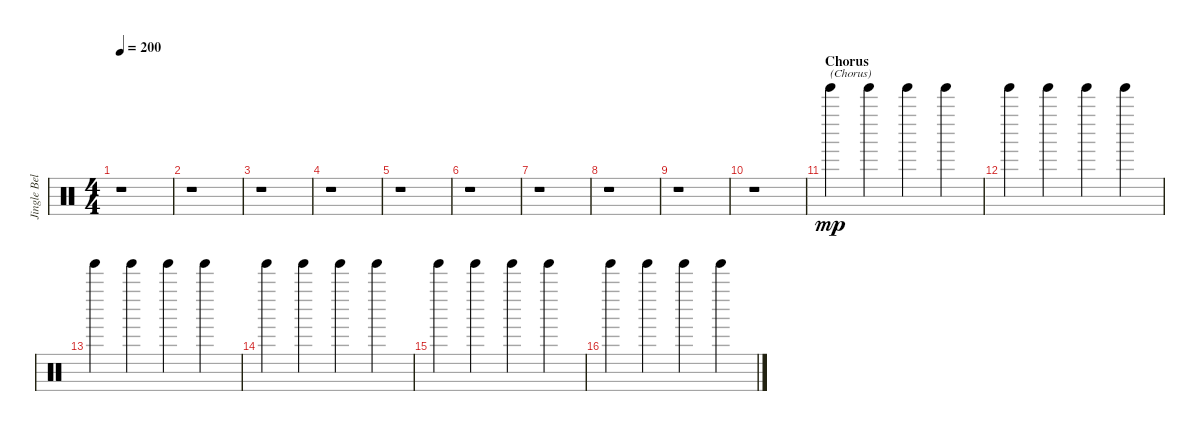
\track ("Jingle Bells" "Jingle Bel") {instrument percussion}
\staff {score}
\articulation defaults
\ts (4 4)
\tempo 200
\clef neutral
\ks c
r.1{dy mp} |
r.1 |
r.1 |
r.1 |
r.1 |
r.1 |
r.1 |
r.1 |
r.1 |
r.1 |
\section ("" "Chorus")
"Tinkle Bell (hit)".4{txt "(Chorus)"} "Tinkle Bell (hit)".4 "Tinkle Bell (hit)".4 "Tinkle Bell (hit)".4 |
"Tinkle Bell (hit)".4 "Tinkle Bell (hit)".4 "Tinkle Bell (hit)".4 "Tinkle Bell (hit)".4 |
"Tinkle Bell (hit)".4 "Tinkle Bell (hit)".4 "Tinkle Bell (hit)".4 "Tinkle Bell (hit)".4 |
"Tinkle Bell (hit)".4 "Tinkle Bell (hit)".4 "Tinkle Bell (hit)".4 "Tinkle Bell (hit)".4 |
"Tinkle Bell (hit)".4 "Tinkle Bell (hit)".4 "Tinkle Bell (hit)".4 "Tinkle Bell (hit)".4 |
"Tinkle Bell (hit)".4 "Tinkle Bell (hit)".4 "Tinkle Bell (hit)".4 "Tinkle Bell (hit)".4
